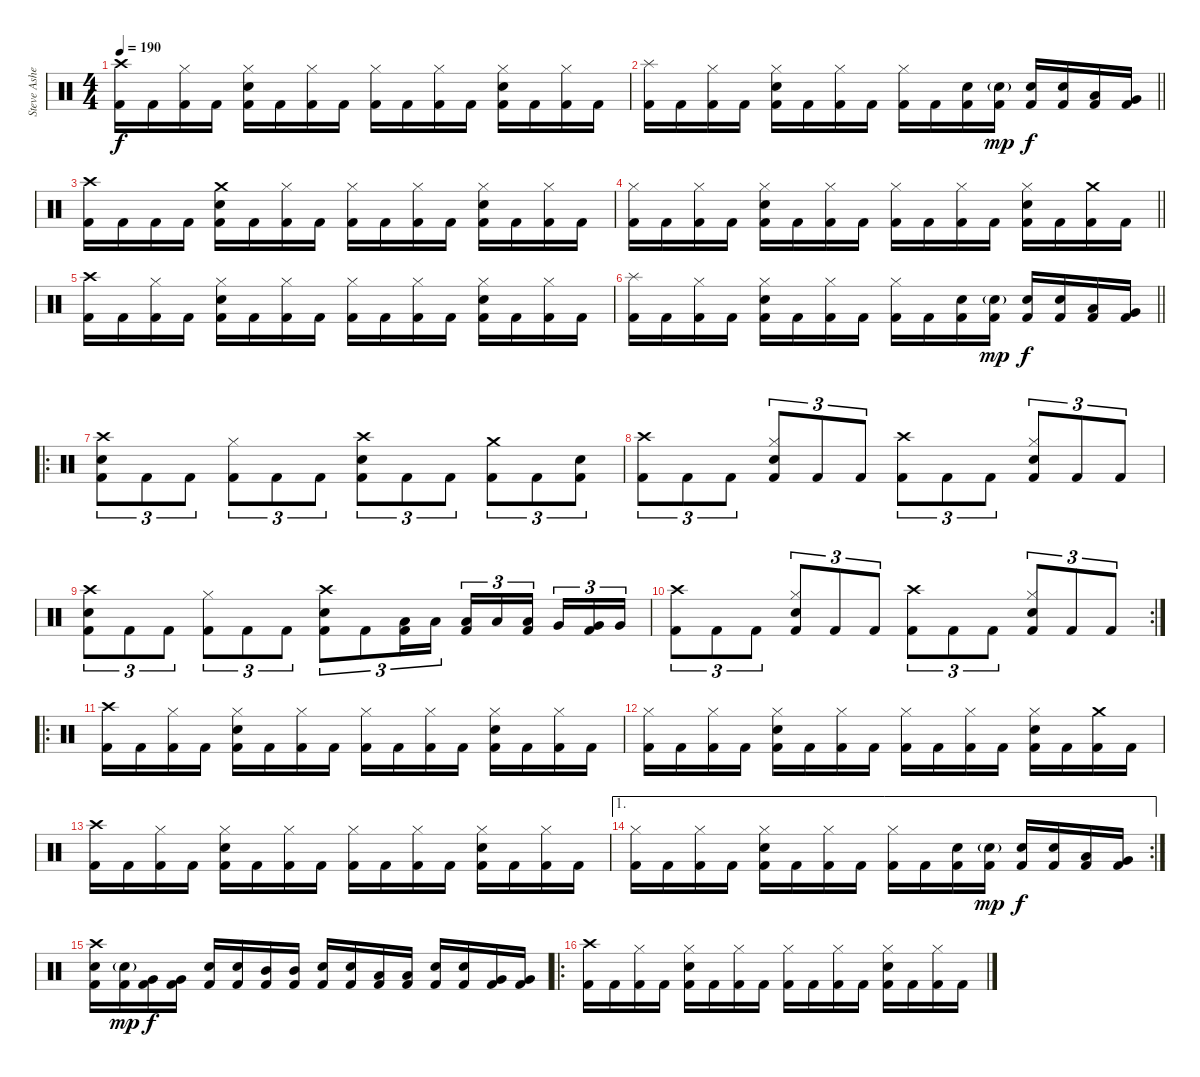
\track ("Steve Asheim" "Steve Ashe") {instrument percussion}
\staff {score}
\articulation defaults
\ts (4 4)
\tempo 190
\clef neutral
\ks c
("Crash high (hit)" "Kick (hit) 2").16{dy f} "Kick (hit) 2".16 ("Hi-Hat (closed)" "Kick (hit) 2").16 "Kick (hit) 2".16 ("Hi-Hat (closed)" "Snare (hit) 2" "Kick (hit) 2").16 "Kick (hit) 2".16 ("Hi-Hat (closed)" "Kick (hit) 2").16 "Kick (hit) 2".16 ("Hi-Hat (closed)" "Kick (hit) 2").16 "Kick (hit) 2".16 ("Hi-Hat (closed)" "Kick (hit) 2").16 "Kick (hit) 2".16 ("Hi-Hat (closed)" "Snare (hit) 2" "Kick (hit) 2").16 "Kick (hit) 2".16 ("Hi-Hat (closed)" "Kick (hit) 2").16 "Kick (hit) 2".16 |
\barLineRight lightlight
("Splash (hit)" "Kick (hit) 2").16 "Kick (hit) 2".16 ("Hi-Hat (closed)" "Kick (hit) 2").16 "Kick (hit) 2".16 ("Hi-Hat (closed)" "Snare (hit) 2" "Kick (hit) 2").16 "Kick (hit) 2".16 ("Hi-Hat (closed)" "Kick (hit) 2").16 "Kick (hit) 2".16 ("Hi-Hat (closed)" "Kick (hit) 2").16 "Kick (hit) 2".16 ("Snare (hit) 2" "Kick (hit) 2").16 ("Snare (hit) 2"{g} "Kick (hit) 2").16{dy mp} ("Snare (hit) 2" "Kick (hit) 2").16{dy f} ("Snare (hit) 2" "Kick (hit) 2").16 ("Low Tom (hit)" "Kick (hit) 2").16 ("Very Low Tom (hit)" "Kick (hit) 2").16 |
("Crash high (hit)" "Kick (hit) 2").16 "Kick (hit) 2".16 "Kick (hit) 2".16 "Kick (hit) 2".16 ("Crash medium (hit)" "Snare (hit) 2" "Kick (hit) 2").16 "Kick (hit) 2".16 ("Hi-Hat (closed)" "Kick (hit) 2").16 "Kick (hit) 2".16 ("Hi-Hat (closed)" "Kick (hit) 2").16 "Kick (hit) 2".16 ("Hi-Hat (closed)" "Kick (hit) 2").16 "Kick (hit) 2".16 ("Hi-Hat (closed)" "Snare (hit) 2" "Kick (hit) 2").16 "Kick (hit) 2".16 ("Hi-Hat (closed)" "Kick (hit) 2").16 "Kick (hit) 2".16 |
\barLineRight lightlight
("Hi-Hat (closed)" "Kick (hit) 2").16 "Kick (hit) 2".16 ("Hi-Hat (closed)" "Kick (hit) 2").16 "Kick (hit) 2".16 ("Hi-Hat (closed)" "Snare (hit) 2" "Kick (hit) 2").16 "Kick (hit) 2".16 ("Hi-Hat (closed)" "Kick (hit) 2").16 "Kick (hit) 2".16 ("Hi-Hat (closed)" "Kick (hit) 2").16 "Kick (hit) 2".16 ("Hi-Hat (closed)" "Kick (hit) 2").16 "Kick (hit) 2".16 ("Hi-Hat (closed)" "Snare (hit) 2" "Kick (hit) 2").16 "Kick (hit) 2".16 ("Crash medium (hit)" "Kick (hit) 2").16 "Kick (hit) 2".16 |
("Crash high (hit)" "Kick (hit) 2").16 "Kick (hit) 2".16 ("Hi-Hat (closed)" "Kick (hit) 2").16 "Kick (hit) 2".16 ("Hi-Hat (closed)" "Snare (hit) 2" "Kick (hit) 2").16 "Kick (hit) 2".16 ("Hi-Hat (closed)" "Kick (hit) 2").16 "Kick (hit) 2".16 ("Hi-Hat (closed)" "Kick (hit) 2").16 "Kick (hit) 2".16 ("Hi-Hat (closed)" "Kick (hit) 2").16 "Kick (hit) 2".16 ("Hi-Hat (closed)" "Snare (hit) 2" "Kick (hit) 2").16 "Kick (hit) 2".16 ("Hi-Hat (closed)" "Kick (hit) 2").16 "Kick (hit) 2".16 |
\barLineRight lightlight
("Splash (hit)" "Kick (hit) 2").16 "Kick (hit) 2".16 ("Hi-Hat (closed)" "Kick (hit) 2").16 "Kick (hit) 2".16 ("Hi-Hat (closed)" "Snare (hit) 2" "Kick (hit) 2").16 "Kick (hit) 2".16 ("Hi-Hat (closed)" "Kick (hit) 2").16 "Kick (hit) 2".16 ("Hi-Hat (closed)" "Kick (hit) 2").16 "Kick (hit) 2".16 ("Snare (hit) 2" "Kick (hit) 2").16 ("Snare (hit) 2"{g} "Kick (hit) 2").16{dy mp} ("Snare (hit) 2" "Kick (hit) 2").16{dy f} ("Snare (hit) 2" "Kick (hit) 2").16 ("Low Tom (hit)" "Kick (hit) 2").16 ("Very Low Tom (hit)" "Kick (hit) 2").16 |
\ro
\section ("" "")
("Crash high (hit)" "Snare (hit) 2" "Kick (hit) 2").8{tu (3 2)} "Kick (hit) 2".8{tu (3 2)} "Kick (hit) 2".8{tu (3 2)} ("Hi-Hat (closed)" "Kick (hit) 2").8{tu (3 2)} "Kick (hit) 2".8{tu (3 2)} "Kick (hit) 2".8{tu (3 2)} ("Crash high (hit)" "Snare (hit) 2" "Kick (hit) 2").8{tu (3 2)} "Kick (hit) 2".8{tu (3 2)} "Kick (hit) 2".8{tu (3 2)} ("Crash medium (hit)" "Kick (hit) 2").8{tu (3 2)} "Kick (hit) 2".8{tu (3 2)} ("Snare (hit) 2" "Kick (hit) 2").8{tu (3 2)} |
("Crash high (hit)" "Kick (hit) 2").8{tu (3 2)} "Kick (hit) 2".8{tu (3 2)} "Kick (hit) 2".8{tu (3 2)} ("Hi-Hat (closed)" "Snare (hit) 2" "Kick (hit) 2").8{tu (3 2)} "Kick (hit) 2".8{tu (3 2)} "Kick (hit) 2".8{tu (3 2)} ("Crash high (hit)" "Kick (hit) 2").8{tu (3 2)} "Kick (hit) 2".8{tu (3 2)} "Kick (hit) 2".8{tu (3 2)} ("Hi-Hat (closed)" "Snare (hit) 2" "Kick (hit) 2").8{tu (3 2)} "Kick (hit) 2".8{tu (3 2)} "Kick (hit) 2".8{tu (3 2)} |
("Crash high (hit)" "Snare (hit) 2" "Kick (hit) 2").8{tu (3 2)} "Kick (hit) 2".8{tu (3 2)} "Kick (hit) 2".8{tu (3 2)} ("Hi-Hat (closed)" "Kick (hit) 2").8{tu (3 2)} "Kick (hit) 2".8{tu (3 2)} "Kick (hit) 2".8{tu (3 2)} ("Crash high (hit)" "Snare (hit) 2" "Kick (hit) 2").8{tu (3 2)} "Kick (hit) 2".8{tu (3 2)} ("Low Tom (hit)" "Kick (hit) 2").16{tu (3 2)} "Low Tom (hit)".16{tu (3 2)} ("Low Tom (hit)" "Kick (hit) 2").16{tu (3 2)} "Low Tom (hit)".16{tu (3 2)} ("Low Tom (hit)" "Kick (hit) 2").16{tu (3 2) beam splitsecondary} "Very Low Tom (hit)".16{tu (3 2)} ("Very Low Tom (hit)" "Kick (hit) 2").16{tu (3 2)} "Very Low Tom (hit)".16{tu (3 2)} |
\rc 2
("Crash high (hit)" "Kick (hit) 2").8{tu (3 2)} "Kick (hit) 2".8{tu (3 2)} "Kick (hit) 2".8{tu (3 2)} ("Hi-Hat (closed)" "Snare (hit) 2" "Kick (hit) 2").8{tu (3 2)} "Kick (hit) 2".8{tu (3 2)} "Kick (hit) 2".8{tu (3 2)} ("Crash high (hit)" "Kick (hit) 2").8{tu (3 2)} "Kick (hit) 2".8{tu (3 2)} "Kick (hit) 2".8{tu (3 2)} ("Hi-Hat (closed)" "Snare (hit) 2" "Kick (hit) 2").8{tu (3 2)} "Kick (hit) 2".8{tu (3 2)} "Kick (hit) 2".8{tu (3 2)} |
\ro
("Crash high (hit)" "Kick (hit) 2").16 "Kick (hit) 2".16 ("Hi-Hat (closed)" "Kick (hit) 2").16 "Kick (hit) 2".16 ("Hi-Hat (closed)" "Snare (hit) 2" "Kick (hit) 2").16 "Kick (hit) 2".16 ("Hi-Hat (closed)" "Kick (hit) 2").16 "Kick (hit) 2".16 ("Hi-Hat (closed)" "Kick (hit) 2").16 "Kick (hit) 2".16 ("Hi-Hat (closed)" "Kick (hit) 2").16 "Kick (hit) 2".16 ("Hi-Hat (closed)" "Snare (hit) 2" "Kick (hit) 2").16 "Kick (hit) 2".16 ("Hi-Hat (closed)" "Kick (hit) 2").16 "Kick (hit) 2".16 |
("Hi-Hat (closed)" "Kick (hit) 2").16 "Kick (hit) 2".16 ("Hi-Hat (closed)" "Kick (hit) 2").16 "Kick (hit) 2".16 ("Hi-Hat (closed)" "Snare (hit) 2" "Kick (hit) 2").16 "Kick (hit) 2".16 ("Hi-Hat (closed)" "Kick (hit) 2").16 "Kick (hit) 2".16 ("Hi-Hat (closed)" "Kick (hit) 2").16 "Kick (hit) 2".16 ("Hi-Hat (closed)" "Kick (hit) 2").16 "Kick (hit) 2".16 ("Hi-Hat (closed)" "Snare (hit) 2" "Kick (hit) 2").16 "Kick (hit) 2".16 ("Crash medium (hit)" "Kick (hit) 2").16 "Kick (hit) 2".16 |
("Crash high (hit)" "Kick (hit) 2").16 "Kick (hit) 2".16 ("Hi-Hat (closed)" "Kick (hit) 2").16 "Kick (hit) 2".16 ("Hi-Hat (closed)" "Snare (hit) 2" "Kick (hit) 2").16 "Kick (hit) 2".16 ("Hi-Hat (closed)" "Kick (hit) 2").16 "Kick (hit) 2".16 ("Hi-Hat (closed)" "Kick (hit) 2").16 "Kick (hit) 2".16 ("Hi-Hat (closed)" "Kick (hit) 2").16 "Kick (hit) 2".16 ("Hi-Hat (closed)" "Snare (hit) 2" "Kick (hit) 2").16 "Kick (hit) 2".16 ("Hi-Hat (closed)" "Kick (hit) 2").16 "Kick (hit) 2".16 |
\ae 1
\rc 2
("Hi-Hat (closed)" "Kick (hit) 2").16 "Kick (hit) 2".16 ("Hi-Hat (closed)" "Kick (hit) 2").16 "Kick (hit) 2".16 ("Hi-Hat (closed)" "Snare (hit) 2" "Kick (hit) 2").16 "Kick (hit) 2".16 ("Hi-Hat (closed)" "Kick (hit) 2").16 "Kick (hit) 2".16 ("Hi-Hat (closed)" "Kick (hit) 2").16 "Kick (hit) 2".16 ("Snare (hit) 2" "Kick (hit) 2").16 ("Snare (hit) 2"{g} "Kick (hit) 2").16{dy mp} ("Snare (hit) 2" "Kick (hit) 2").16{dy f} ("Snare (hit) 2" "Kick (hit) 2").16 ("Low Tom (hit)" "Kick (hit) 2").16 ("Very Low Tom (hit)" "Kick (hit) 2").16 |
("Crash high (hit)" "Snare (hit) 2" "Kick (hit) 2").16 ("Snare (hit) 2"{g} "Kick (hit) 2").16{dy mp} ("Very Low Tom (hit)" "Kick (hit) 2").16{dy f} ("Very Low Tom (hit)" "Kick (hit) 2").16 ("Snare (hit) 2" "Kick (hit) 2").16 ("Snare (hit) 2" "Kick (hit) 2").16 ("Mid Tom (hit)" "Kick (hit) 2").16 ("Mid Tom (hit)" "Kick (hit) 2").16 ("Snare (hit) 2" "Kick (hit) 2").16 ("Snare (hit) 2" "Kick (hit) 2").16 ("Low Tom (hit)" "Kick (hit) 2").16 ("Low Tom (hit)" "Kick (hit) 2").16 ("Snare (hit) 2" "Kick (hit) 2").16 ("Snare (hit) 2" "Kick (hit) 2").16 ("Very Low Tom (hit)" "Kick (hit) 2").16 ("Very Low Tom (hit)" "Kick (hit) 2").16 |
\ro
("Crash high (hit)" "Kick (hit) 2").16 "Kick (hit) 2".16 ("Hi-Hat (closed)" "Kick (hit) 2").16 "Kick (hit) 2".16 ("Hi-Hat (closed)" "Snare (hit) 2" "Kick (hit) 2").16 "Kick (hit) 2".16 ("Hi-Hat (closed)" "Kick (hit) 2").16 "Kick (hit) 2".16 ("Hi-Hat (closed)" "Kick (hit) 2").16 "Kick (hit) 2".16 ("Hi-Hat (closed)" "Kick (hit) 2").16 "Kick (hit) 2".16 ("Hi-Hat (closed)" "Snare (hit) 2" "Kick (hit) 2").16 "Kick (hit) 2".16 ("Hi-Hat (closed)" "Kick (hit) 2").16 "Kick (hit) 2".16
